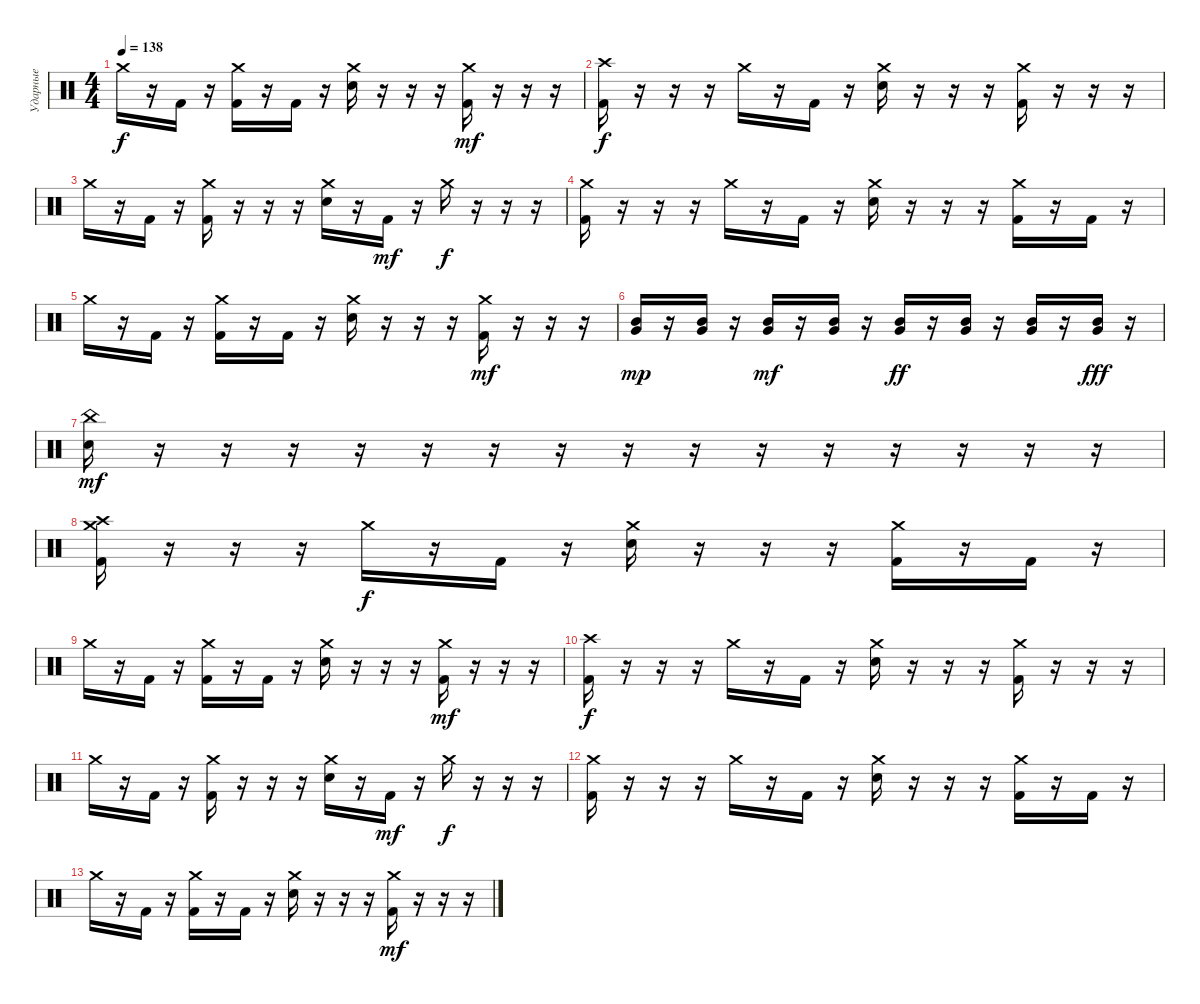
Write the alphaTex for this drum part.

\track ("Ударные" "Ударные") {instrument percussion}
\staff {score}
\articulation defaults
\ts (4 4)
\tempo 138
\clef neutral
\ks c "Crash medium (hit)".16{dy f}
r.16 "Kick (hit) 2".16 r.16 ("Crash medium (hit)" "Kick (hit) 2").16 r.16 "Kick (hit) 2".16 r.16 ("Crash medium (hit)" "Electric Snare (hit)").16 r.16 r.16 r.16 ("Crash medium (hit)" "Kick (hit) 2").16{dy mf} r.16 r.16 r.16 |
("Crash high (hit)" "Kick (hit) 2").16{dy f} r.16 r.16 r.16 "Crash medium (hit)".16 r.16 "Kick (hit) 2".16 r.16 ("Crash medium (hit)" "Electric Snare (hit)").16 r.16 r.16 r.16 ("Crash medium (hit)" "Kick (hit) 2").16 r.16 r.16 r.16 |
"Crash medium (hit)".16 r.16 "Kick (hit) 2".16 r.16 ("Crash medium (hit)" "Kick (hit) 2").16 r.16 r.16 r.16 ("Crash medium (hit)" "Electric Snare (hit)").16 r.16 "Kick (hit) 2".16{dy mf} r.16 "Crash medium (hit)".16{dy f} r.16 r.16 r.16 |
("Crash medium (hit)" "Kick (hit) 2").16 r.16 r.16 r.16 "Crash medium (hit)".16 r.16 "Kick (hit) 2".16 r.16 ("Crash medium (hit)" "Electric Snare (hit)").16 r.16 r.16 r.16 ("Crash medium (hit)" "Kick (hit) 2").16 r.16 "Kick (hit) 2".16 r.16 |
"Crash medium (hit)".16 r.16 "Kick (hit) 2".16 r.16 ("Crash medium (hit)" "Kick (hit) 2").16 r.16 "Kick (hit) 2".16 r.16 ("Crash medium (hit)" "Electric Snare (hit)").16 r.16 r.16 r.16 ("Crash medium (hit)" "Kick (hit) 2").16{dy mf} r.16 r.16 r.16 |
("Mid Tom (hit)" "Very Low Tom (hit)").16{dy mp} r.16 ("Mid Tom (hit)" "Very Low Tom (hit)").16 r.16 ("Mid Tom (hit)" "Very Low Tom (hit)").16{dy mf} r.16 ("Mid Tom (hit)" "Very Low Tom (hit)").16 r.16 ("Mid Tom (hit)" "Very Low Tom (hit)").16{dy ff} r.16 ("Mid Tom (hit)" "Very Low Tom (hit)").16 r.16 ("Mid Tom (hit)" "Very Low Tom (hit)").16 r.16 ("Mid Tom (hit)" "Very Low Tom (hit)").16{dy fff} r.16 |
("China (hit)" "Electric Snare (hit)").16{dy mf} r.16 r.16 r.16 r.16 r.16 r.16 r.16 r.16 r.16 r.16 r.16 r.16 r.16 r.16 r.16 |
("Crash high (hit)" "Crash medium (hit)" "Kick (hit) 2").16 r.16 r.16 r.16 "Crash medium (hit)".16{dy f} r.16 "Kick (hit) 2".16 r.16 ("Crash medium (hit)" "Electric Snare (hit)").16 r.16 r.16 r.16 ("Crash medium (hit)" "Kick (hit) 2").16 r.16 "Kick (hit) 2".16 r.16 |
"Crash medium (hit)".16 r.16 "Kick (hit) 2".16 r.16 ("Crash medium (hit)" "Kick (hit) 2").16 r.16 "Kick (hit) 2".16 r.16 ("Crash medium (hit)" "Electric Snare (hit)").16 r.16 r.16 r.16 ("Crash medium (hit)" "Kick (hit) 2").16{dy mf} r.16 r.16 r.16 |
("Crash high (hit)" "Kick (hit) 2").16{dy f} r.16 r.16 r.16 "Crash medium (hit)".16 r.16 "Kick (hit) 2".16 r.16 ("Crash medium (hit)" "Electric Snare (hit)").16 r.16 r.16 r.16 ("Crash medium (hit)" "Kick (hit) 2").16 r.16 r.16 r.16 |
"Crash medium (hit)".16 r.16 "Kick (hit) 2".16 r.16 ("Crash medium (hit)" "Kick (hit) 2").16 r.16 r.16 r.16 ("Crash medium (hit)" "Electric Snare (hit)").16 r.16 "Kick (hit) 2".16{dy mf} r.16 "Crash medium (hit)".16{dy f} r.16 r.16 r.16 |
("Crash medium (hit)" "Kick (hit) 2").16 r.16 r.16 r.16 "Crash medium (hit)".16 r.16 "Kick (hit) 2".16 r.16 ("Crash medium (hit)" "Electric Snare (hit)").16 r.16 r.16 r.16 ("Crash medium (hit)" "Kick (hit) 2").16 r.16 "Kick (hit) 2".16 r.16 |
"Crash medium (hit)".16 r.16 "Kick (hit) 2".16 r.16 ("Crash medium (hit)" "Kick (hit) 2").16 r.16 "Kick (hit) 2".16 r.16 ("Crash medium (hit)" "Electric Snare (hit)").16 r.16 r.16 r.16 ("Crash medium (hit)" "Kick (hit) 2").16{dy mf} r.16 r.16 r.16
